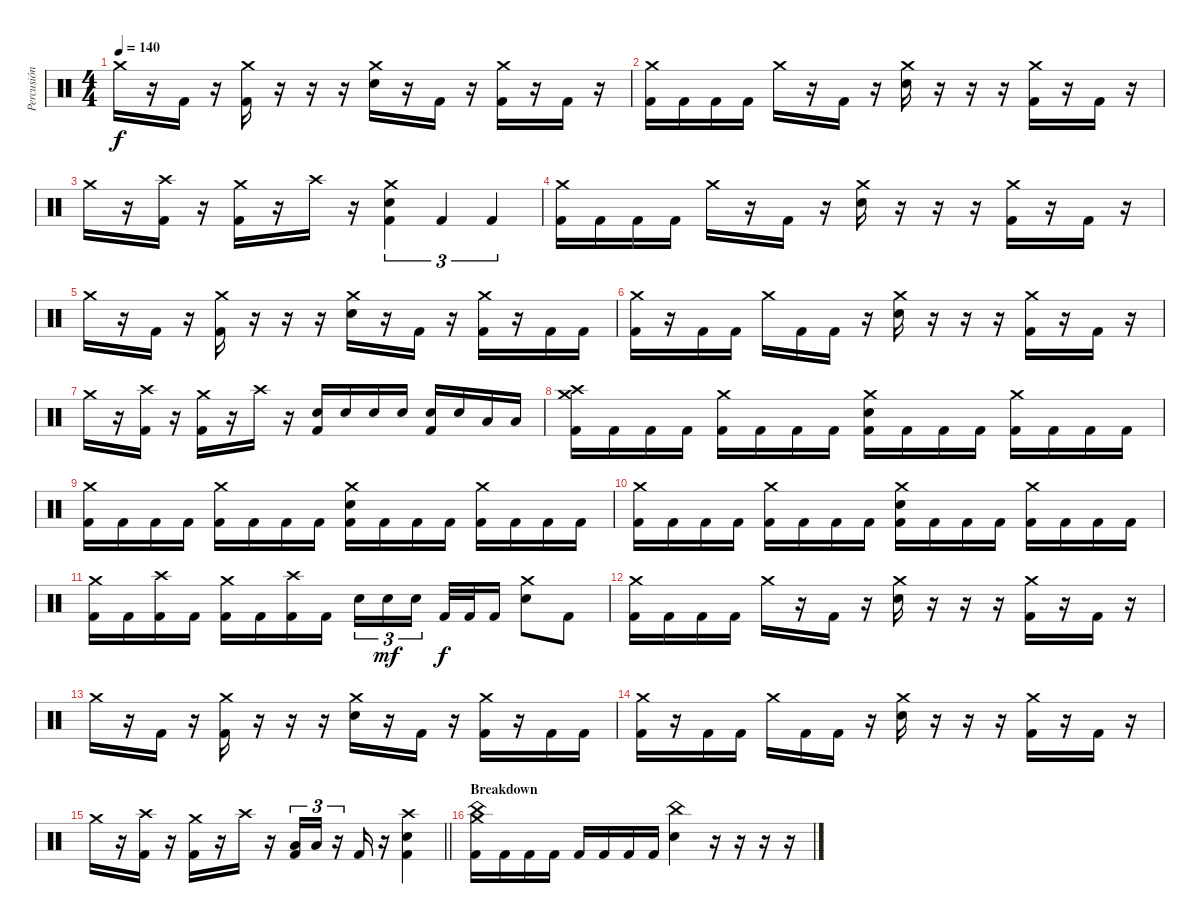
\track ("Percusión" "Percusión") {instrument percussion}
\staff {score}
\articulation defaults
\ts (4 4)
\tempo 140
\clef neutral
\ks c "Crash medium (hit)".16{dy f}
r.16 "Kick (hit) 2".16 r.16 ("Crash medium (hit)" "Kick (hit) 2").16 r.16 r.16 r.16 ("Crash medium (hit)" "Electric Snare (hit)").16 r.16 "Kick (hit) 2".16 r.16 ("Crash medium (hit)" "Kick (hit) 2").16 r.16 "Kick (hit) 2".16 r.16 |
("Crash medium (hit)" "Kick (hit) 2").16 "Kick (hit) 2".16 "Kick (hit) 2".16 "Kick (hit) 2".16 "Crash medium (hit)".16 r.16 "Kick (hit) 2".16 r.16 ("Crash medium (hit)" "Electric Snare (hit)").16 r.16 r.16 r.16 ("Crash medium (hit)" "Kick (hit) 2").16 r.16 "Kick (hit) 2".16 r.16 |
"Crash medium (hit)".16 r.16 ("Crash high (hit)" "Kick (hit) 2").16 r.16 ("Crash medium (hit)" "Kick (hit) 2").16 r.16 "Crash high (hit)".16 r.16 ("Crash medium (hit)" "Electric Snare (hit)" "Kick (hit) 2").4{tu (3 2)} "Kick (hit) 2".4{tu (3 2)} "Kick (hit) 2".4{tu (3 2)} |
("Crash medium (hit)" "Kick (hit) 2").16 "Kick (hit) 2".16 "Kick (hit) 2".16 "Kick (hit) 2".16 "Crash medium (hit)".16 r.16 "Kick (hit) 2".16 r.16 ("Crash medium (hit)" "Electric Snare (hit)").16 r.16 r.16 r.16 ("Crash medium (hit)" "Kick (hit) 2").16 r.16 "Kick (hit) 2".16 r.16 |
"Crash medium (hit)".16 r.16 "Kick (hit) 2".16 r.16 ("Crash medium (hit)" "Kick (hit) 2").16 r.16 r.16 r.16 ("Crash medium (hit)" "Electric Snare (hit)").16 r.16 "Kick (hit) 2".16 r.16 ("Crash medium (hit)" "Kick (hit) 2").16 r.16 "Kick (hit) 2".16 "Kick (hit) 2".16 |
("Crash medium (hit)" "Kick (hit) 2").16 r.16 "Kick (hit) 2".16 "Kick (hit) 2".16 "Crash medium (hit)".16 "Kick (hit) 2".16 "Kick (hit) 2".16 r.16 ("Crash medium (hit)" "Electric Snare (hit)").16 r.16 r.16 r.16 ("Crash medium (hit)" "Kick (hit) 2").16 r.16 "Kick (hit) 2".16 r.16 |
"Crash medium (hit)".16 r.16 ("Crash high (hit)" "Kick (hit) 2").16 r.16 ("Crash medium (hit)" "Kick (hit) 2").16 r.16 "Crash high (hit)".16 r.16 ("Electric Snare (hit)" "Kick (hit) 2").16 "Electric Snare (hit)".16 "Electric Snare (hit)".16 "Electric Snare (hit)".16 ("Electric Snare (hit)" "Kick (hit) 2").16 "Electric Snare (hit)".16 "Low Floor Tom (hit)".16 "Low Floor Tom (hit)".16 |
("Crash medium (hit)" "Crash high (hit)" "Kick (hit) 2").16 "Kick (hit) 2".16 "Kick (hit) 2".16 "Kick (hit) 2".16 ("Crash medium (hit)" "Kick (hit) 2").16 "Kick (hit) 2".16 "Kick (hit) 2".16 "Kick (hit) 2".16 ("Crash medium (hit)" "Electric Snare (hit)" "Kick (hit) 2").16 "Kick (hit) 2".16 "Kick (hit) 2".16 "Kick (hit) 2".16 ("Crash medium (hit)" "Kick (hit) 2").16 "Kick (hit) 2".16 "Kick (hit) 2".16 "Kick (hit) 2".16 |
("Crash medium (hit)" "Kick (hit) 2").16 "Kick (hit) 2".16 "Kick (hit) 2".16 "Kick (hit) 2".16 ("Crash medium (hit)" "Kick (hit) 2").16 "Kick (hit) 2".16 "Kick (hit) 2".16 "Kick (hit) 2".16 ("Crash medium (hit)" "Electric Snare (hit)" "Kick (hit) 2").16 "Kick (hit) 2".16 "Kick (hit) 2".16 "Kick (hit) 2".16 ("Crash medium (hit)" "Kick (hit) 2").16 "Kick (hit) 2".16 "Kick (hit) 2".16 "Kick (hit) 2".16 |
("Crash medium (hit)" "Kick (hit) 2").16 "Kick (hit) 2".16 "Kick (hit) 2".16 "Kick (hit) 2".16 ("Crash medium (hit)" "Kick (hit) 2").16 "Kick (hit) 2".16 "Kick (hit) 2".16 "Kick (hit) 2".16 ("Crash medium (hit)" "Electric Snare (hit)" "Kick (hit) 2").16 "Kick (hit) 2".16 "Kick (hit) 2".16 "Kick (hit) 2".16 ("Crash medium (hit)" "Kick (hit) 2").16 "Kick (hit) 2".16 "Kick (hit) 2".16 "Kick (hit) 2".16 |
("Crash medium (hit)" "Kick (hit) 2").16 "Kick (hit) 2".16 ("Crash high (hit)" "Kick (hit) 2").16 "Kick (hit) 2".16 ("Crash medium (hit)" "Kick (hit) 2").16 "Kick (hit) 2".16 ("Crash high (hit)" "Kick (hit) 2").16 "Kick (hit) 2".16 "Electric Snare (hit)".16{tu (3 2)} "Electric Snare (hit)".16{tu (3 2) dy mf} "Electric Snare (hit)".16{tu (3 2) beam splitsecondary} "Kick (hit) 2".32{dy f} "Kick (hit) 2".32 "Kick (hit) 2".16 ("Crash medium (hit)" "Electric Snare (hit)").8 "Kick (hit) 2".8 |
("Crash medium (hit)" "Kick (hit) 2").16 "Kick (hit) 2".16 "Kick (hit) 2".16 "Kick (hit) 2".16 "Crash medium (hit)".16 r.16 "Kick (hit) 2".16 r.16 ("Crash medium (hit)" "Electric Snare (hit)").16 r.16 r.16 r.16 ("Crash medium (hit)" "Kick (hit) 2").16 r.16 "Kick (hit) 2".16 r.16 |
"Crash medium (hit)".16 r.16 "Kick (hit) 2".16 r.16 ("Crash medium (hit)" "Kick (hit) 2").16 r.16 r.16 r.16 ("Crash medium (hit)" "Electric Snare (hit)").16 r.16 "Kick (hit) 2".16 r.16 ("Crash medium (hit)" "Kick (hit) 2").16 r.16 "Kick (hit) 2".16 "Kick (hit) 2".16 |
("Crash medium (hit)" "Kick (hit) 2").16 r.16 "Kick (hit) 2".16 "Kick (hit) 2".16 "Crash medium (hit)".16 "Kick (hit) 2".16 "Kick (hit) 2".16 r.16 ("Crash medium (hit)" "Electric Snare (hit)").16 r.16 r.16 r.16 ("Crash medium (hit)" "Kick (hit) 2").16 r.16 "Kick (hit) 2".16 r.16 |
\barLineRight lightlight "Crash medium (hit)".16
r.16 ("Crash high (hit)" "Kick (hit) 2").16 r.16 ("Crash medium (hit)" "Kick (hit) 2").16 r.16 "Crash high (hit)".16 r.16 ("Low Tom (hit)" "Kick (hit) 2").16{tu (3 2)} "Low Tom (hit)".16{tu (3 2)} r.16{tu (3 2)} "Kick (hit) 2".16 r.16 ("Crash high (hit)" "Electric Snare (hit)" "Kick (hit) 2").4 |
\section ("" "Breakdown")
("Crash medium (hit)" "China (hit)" "Kick (hit) 2").16 "Kick (hit) 2".16 "Kick (hit) 2".16 "Kick (hit) 2".16 "Kick (hit) 2".16 "Kick (hit) 2".16 "Kick (hit) 2".16 "Kick (hit) 2".16 ("China (hit)" "Electric Snare (hit)").4 r.16 r.16 r.16 r.16
